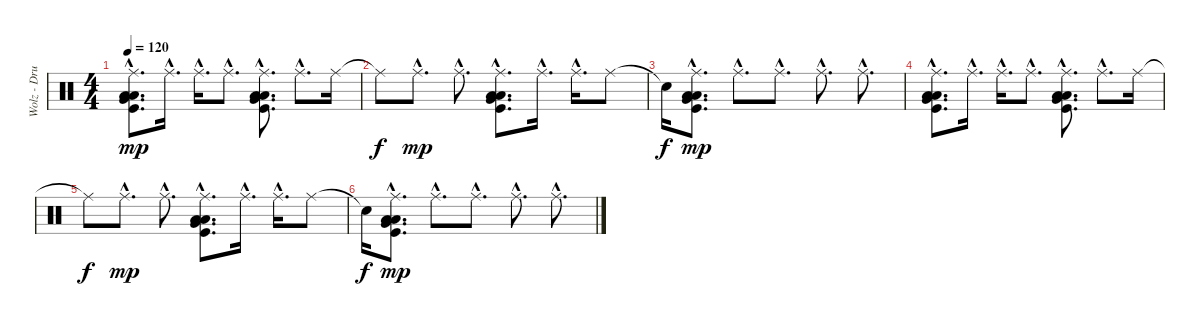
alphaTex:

\track ("Wolz - Drums" "Wolz - Dru") {instrument percussion}
\staff {score}
\articulation defaults
\ts (4 4)
\tempo 120
\clef neutral
\ks c
("Ride (middle)"{hac} "Low Tom (hit)"{hac} "Very Low Tom (hit)"{hac} "Low Floor Tom (hit)"{hac} "Kick (hit)"{hac}).8{d bu 60 dy mp} "Ride (middle)"{hac}.16{d} "Ride (middle)"{hac}.16{d} "Ride (middle)"{hac}.8{d} ("Ride (middle)"{hac} "Low Tom (hit)"{hac} "Very Low Tom (hit)"{hac} "Low Floor Tom (hit)"{hac} "Kick (hit)"{hac}).8{d bu 60} "Ride (middle)"{hac}.8{d} "Ride (middle)".16 |
"Ride (middle)"{t}.8{dy f} "Ride (middle)"{hac}.8{d dy mp} "Ride (middle)"{hac}.8{d bu 60} ("Ride (middle)"{hac} "Low Tom (hit)"{hac} "Very Low Tom (hit)"{hac} "Low Floor Tom (hit)"{hac} "Kick (hit)"{hac}).8{d bu 60} "Ride (middle)"{hac}.16{d} "Ride (middle)"{hac}.16{d} "Ride (middle)".8 |
"Snare (hit)"{t}.16{dy f} ("Ride (middle)"{hac} "Low Tom (hit)"{hac} "Very Low Tom (hit)"{hac} "Low Floor Tom (hit)"{hac} "Kick (hit)"{hac}).8{d bu 60 dy mp} "Ride (middle)"{hac}.8{d} "Ride (middle)"{hac}.8{d} "Ride (middle)"{hac}.8{d} "Ride (middle)"{hac}.8{d} |
("Ride (middle)"{hac} "Low Tom (hit)"{hac} "Very Low Tom (hit)"{hac} "Low Floor Tom (hit)"{hac} "Kick (hit)"{hac}).8{d bu 60} "Ride (middle)"{hac}.16{d} "Ride (middle)"{hac}.16{d} "Ride (middle)"{hac}.8{d} ("Ride (middle)"{hac} "Low Tom (hit)"{hac} "Very Low Tom (hit)"{hac} "Low Floor Tom (hit)"{hac} "Kick (hit)"{hac}).8{d bu 60} "Ride (middle)"{hac}.8{d} "Ride (middle)".16 |
"Ride (middle)"{t}.8{dy f} "Ride (middle)"{hac}.8{d dy mp} "Ride (middle)"{hac}.8{d bu 60} ("Ride (middle)"{hac} "Low Tom (hit)"{hac} "Very Low Tom (hit)"{hac} "Low Floor Tom (hit)"{hac} "Kick (hit)"{hac}).8{d bu 60} "Ride (middle)"{hac}.16{d} "Ride (middle)"{hac}.16{d} "Ride (middle)".8 |
"Snare (hit)"{t}.16{dy f} ("Ride (middle)"{hac} "Low Tom (hit)"{hac} "Very Low Tom (hit)"{hac} "Low Floor Tom (hit)"{hac} "Kick (hit)"{hac}).8{d bu 60 dy mp} "Ride (middle)"{hac}.8{d} "Ride (middle)"{hac}.8{d} "Ride (middle)"{hac}.8{d} "Ride (middle)"{hac}.8{d}
